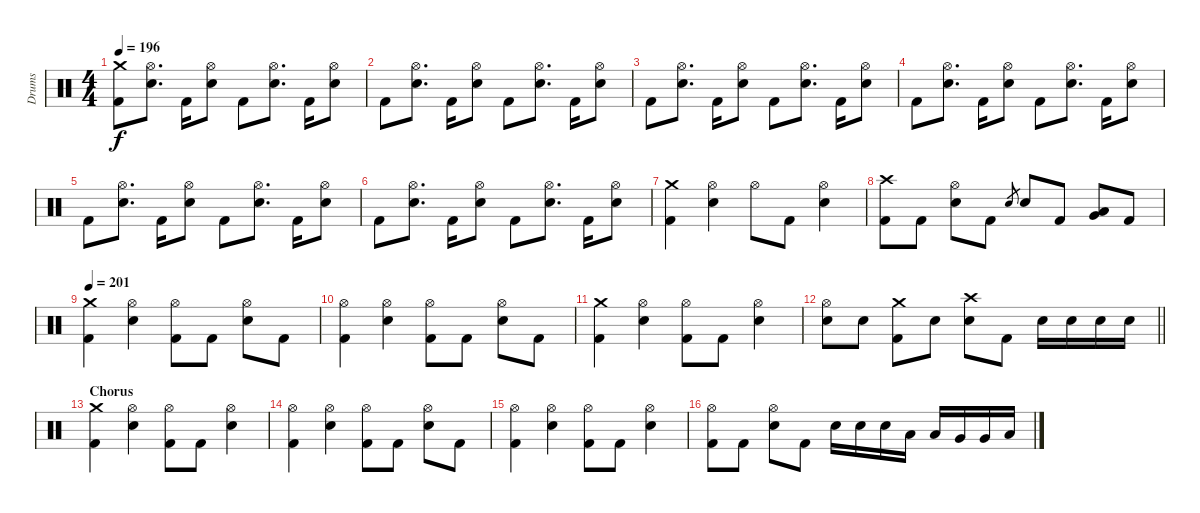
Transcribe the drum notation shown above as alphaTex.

\track ("Drums" "Drums") {instrument percussion}
\staff {score}
\articulation defaults
\ts (4 4)
\tempo 196
\clef neutral
\ks c
("Crash medium (hit)" "Kick (hit) 2").8{dy f} ("Hi-Hat (open)" "Electric Snare (hit)").8{d} "Kick (hit) 2".16 ("Hi-Hat (open)" "Electric Snare (hit)").8 "Kick (hit) 2".8 ("Hi-Hat (open)" "Electric Snare (hit)").8{d} "Kick (hit) 2".16 ("Hi-Hat (open)" "Electric Snare (hit)").8 |
"Kick (hit) 2".8 ("Hi-Hat (open)" "Electric Snare (hit)").8{d} "Kick (hit) 2".16 ("Hi-Hat (open)" "Electric Snare (hit)").8 "Kick (hit) 2".8 ("Hi-Hat (open)" "Electric Snare (hit)").8{d} "Kick (hit) 2".16 ("Hi-Hat (open)" "Electric Snare (hit)").8 |
"Kick (hit) 2".8 ("Hi-Hat (open)" "Electric Snare (hit)").8{d} "Kick (hit) 2".16 ("Hi-Hat (open)" "Electric Snare (hit)").8 "Kick (hit) 2".8 ("Hi-Hat (open)" "Electric Snare (hit)").8{d} "Kick (hit) 2".16 ("Hi-Hat (open)" "Electric Snare (hit)").8 |
"Kick (hit) 2".8 ("Hi-Hat (open)" "Electric Snare (hit)").8{d} "Kick (hit) 2".16 ("Hi-Hat (open)" "Electric Snare (hit)").8 "Kick (hit) 2".8 ("Hi-Hat (open)" "Electric Snare (hit)").8{d} "Kick (hit) 2".16 ("Hi-Hat (open)" "Electric Snare (hit)").8 |
"Kick (hit) 2".8 ("Hi-Hat (open)" "Electric Snare (hit)").8{d} "Kick (hit) 2".16 ("Hi-Hat (open)" "Electric Snare (hit)").8 "Kick (hit) 2".8 ("Hi-Hat (open)" "Electric Snare (hit)").8{d} "Kick (hit) 2".16 ("Hi-Hat (open)" "Electric Snare (hit)").8 |
"Kick (hit) 2".8 ("Hi-Hat (open)" "Electric Snare (hit)").8{d} "Kick (hit) 2".16 ("Hi-Hat (open)" "Electric Snare (hit)").8 "Kick (hit) 2".8 ("Hi-Hat (open)" "Electric Snare (hit)").8{d} "Kick (hit) 2".16 ("Hi-Hat (open)" "Electric Snare (hit)").8 |
("Crash medium (hit)" "Kick (hit) 2").4 ("Hi-Hat (open)" "Electric Snare (hit)").4 "Hi-Hat (open)".8 "Kick (hit) 2".8 ("Hi-Hat (open)" "Electric Snare (hit)").4 |
("Crash high (hit)" "Kick (hit) 2").8 "Kick (hit) 2".8 ("Hi-Hat (open)" "Electric Snare (hit)").8 "Kick (hit) 2".8 "Electric Snare (hit)".8{gr} "Electric Snare (hit)".8 "Kick (hit) 2".8 ("Low Tom (hit)" "Very Low Tom (hit)").8 "Kick (hit) 2".8 |
\tempo 201
("Crash medium (hit)" "Kick (hit) 2").4 ("Hi-Hat (open)" "Electric Snare (hit)").4 ("Hi-Hat (open)" "Kick (hit) 2").8 "Kick (hit) 2".8 ("Hi-Hat (open)" "Electric Snare (hit)").8 "Kick (hit) 2".8 |
("Hi-Hat (open)" "Kick (hit) 2").4 ("Hi-Hat (open)" "Electric Snare (hit)").4 ("Hi-Hat (open)" "Kick (hit) 2").8 "Kick (hit) 2".8 ("Hi-Hat (open)" "Electric Snare (hit)").8 "Kick (hit) 2".8 |
("Crash medium (hit)" "Kick (hit) 2").4 ("Hi-Hat (open)" "Electric Snare (hit)").4 ("Hi-Hat (open)" "Kick (hit) 2").8 "Kick (hit) 2".8 ("Hi-Hat (open)" "Electric Snare (hit)").4 |
\barLineRight lightlight
("Hi-Hat (open)" "Electric Snare (hit)").8 "Electric Snare (hit)".8 ("Crash medium (hit)" "Kick (hit) 2").8 "Electric Snare (hit)".8 ("Crash high (hit)" "Electric Snare (hit)").8 "Kick (hit) 2".8 "Electric Snare (hit)".16 "Electric Snare (hit)".16 "Electric Snare (hit)".16 "Electric Snare (hit)".16 |
\section ("" "Chorus")
("Crash medium (hit)" "Kick (hit) 2").4 ("Hi-Hat (open)" "Electric Snare (hit)").4 ("Hi-Hat (open)" "Kick (hit) 2").8 "Kick (hit) 2".8 ("Hi-Hat (open)" "Electric Snare (hit)").4 |
("Hi-Hat (open)" "Kick (hit) 2").4 ("Hi-Hat (open)" "Electric Snare (hit)").4 ("Hi-Hat (open)" "Kick (hit) 2").8 "Kick (hit) 2".8 ("Hi-Hat (open)" "Electric Snare (hit)").8 "Kick (hit) 2".8 |
("Hi-Hat (open)" "Kick (hit) 2").4 ("Hi-Hat (open)" "Electric Snare (hit)").4 ("Hi-Hat (open)" "Kick (hit) 2").8 "Kick (hit) 2".8 ("Hi-Hat (open)" "Electric Snare (hit)").4 |
("Hi-Hat (open)" "Kick (hit) 2").8 "Kick (hit) 2".8 ("Hi-Hat (open)" "Electric Snare (hit)").8 "Kick (hit) 2".8 "Electric Snare (hit)".16 "Electric Snare (hit)".16 "Electric Snare (hit)".16 "Low Tom (hit)".16 "Low Tom (hit)".16 "Very Low Tom (hit)".16 "Very Low Tom (hit)".16 "Low Floor Tom (hit)".16
